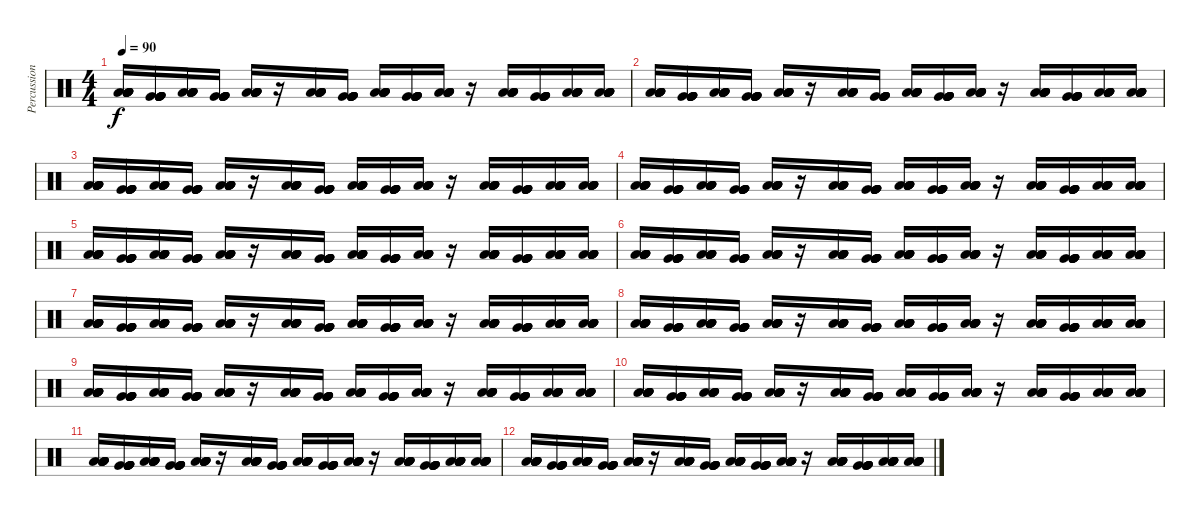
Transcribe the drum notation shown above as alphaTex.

\track ("Percussion 3" "Percussion") {instrument percussion}
\staff {score}
\articulation defaults
\ts (4 4)
\tempo 90
\clef neutral
\ks c
("Low Floor Tom (hit)" "Low Floor Tom (hit)" "Low Floor Tom (hit)" "Low Floor Tom (hit)" "Low Floor Tom (hit)" "Low Floor Tom (hit)").16{dy f} ("Very Low Tom (hit)" "Very Low Tom (hit)" "Very Low Tom (hit)" "Very Low Tom (hit)" "Very Low Tom (hit)" "Very Low Tom (hit)").16 ("Low Floor Tom (hit)" "Low Floor Tom (hit)" "Low Floor Tom (hit)" "Low Floor Tom (hit)" "Low Floor Tom (hit)" "Low Floor Tom (hit)").16 ("Very Low Tom (hit)" "Very Low Tom (hit)" "Very Low Tom (hit)" "Very Low Tom (hit)" "Very Low Tom (hit)" "Very Low Tom (hit)").16 ("Low Floor Tom (hit)" "Low Floor Tom (hit)" "Low Floor Tom (hit)" "Low Floor Tom (hit)" "Low Floor Tom (hit)" "Low Floor Tom (hit)").16 r.16 ("Low Floor Tom (hit)" "Low Floor Tom (hit)" "Low Floor Tom (hit)" "Low Floor Tom (hit)" "Low Floor Tom (hit)" "Low Floor Tom (hit)").16 ("Very Low Tom (hit)" "Very Low Tom (hit)" "Very Low Tom (hit)" "Very Low Tom (hit)" "Very Low Tom (hit)" "Very Low Tom (hit)").16 ("Low Floor Tom (hit)" "Low Floor Tom (hit)" "Low Floor Tom (hit)" "Low Floor Tom (hit)" "Low Floor Tom (hit)" "Low Floor Tom (hit)").16 ("Very Low Tom (hit)" "Very Low Tom (hit)" "Very Low Tom (hit)" "Very Low Tom (hit)" "Very Low Tom (hit)" "Very Low Tom (hit)").16 ("Low Floor Tom (hit)" "Low Floor Tom (hit)" "Low Floor Tom (hit)" "Low Floor Tom (hit)" "Low Floor Tom (hit)" "Low Floor Tom (hit)").16 r.16 ("Low Floor Tom (hit)" "Low Floor Tom (hit)" "Low Floor Tom (hit)" "Low Floor Tom (hit)" "Low Floor Tom (hit)" "Low Floor Tom (hit)").16 ("Very Low Tom (hit)" "Very Low Tom (hit)" "Very Low Tom (hit)" "Very Low Tom (hit)" "Very Low Tom (hit)" "Very Low Tom (hit)").16 ("Low Floor Tom (hit)" "Low Floor Tom (hit)" "Low Floor Tom (hit)" "Low Floor Tom (hit)" "Low Floor Tom (hit)" "Low Floor Tom (hit)").16 ("Low Floor Tom (hit)" "Low Floor Tom (hit)" "Low Floor Tom (hit)" "Low Floor Tom (hit)" "Low Floor Tom (hit)" "Low Floor Tom (hit)").16 |
("Low Floor Tom (hit)" "Low Floor Tom (hit)" "Low Floor Tom (hit)" "Low Floor Tom (hit)" "Low Floor Tom (hit)" "Low Floor Tom (hit)").16 ("Very Low Tom (hit)" "Very Low Tom (hit)" "Very Low Tom (hit)" "Very Low Tom (hit)" "Very Low Tom (hit)" "Very Low Tom (hit)").16 ("Low Floor Tom (hit)" "Low Floor Tom (hit)" "Low Floor Tom (hit)" "Low Floor Tom (hit)" "Low Floor Tom (hit)" "Low Floor Tom (hit)").16 ("Very Low Tom (hit)" "Very Low Tom (hit)" "Very Low Tom (hit)" "Very Low Tom (hit)" "Very Low Tom (hit)" "Very Low Tom (hit)").16 ("Low Floor Tom (hit)" "Low Floor Tom (hit)" "Low Floor Tom (hit)" "Low Floor Tom (hit)" "Low Floor Tom (hit)" "Low Floor Tom (hit)").16 r.16 ("Low Floor Tom (hit)" "Low Floor Tom (hit)" "Low Floor Tom (hit)" "Low Floor Tom (hit)" "Low Floor Tom (hit)" "Low Floor Tom (hit)").16 ("Very Low Tom (hit)" "Very Low Tom (hit)" "Very Low Tom (hit)" "Very Low Tom (hit)" "Very Low Tom (hit)" "Very Low Tom (hit)").16 ("Low Floor Tom (hit)" "Low Floor Tom (hit)" "Low Floor Tom (hit)" "Low Floor Tom (hit)" "Low Floor Tom (hit)" "Low Floor Tom (hit)").16 ("Very Low Tom (hit)" "Very Low Tom (hit)" "Very Low Tom (hit)" "Very Low Tom (hit)" "Very Low Tom (hit)" "Very Low Tom (hit)").16 ("Low Floor Tom (hit)" "Low Floor Tom (hit)" "Low Floor Tom (hit)" "Low Floor Tom (hit)" "Low Floor Tom (hit)" "Low Floor Tom (hit)").16 r.16 ("Low Floor Tom (hit)" "Low Floor Tom (hit)" "Low Floor Tom (hit)" "Low Floor Tom (hit)" "Low Floor Tom (hit)" "Low Floor Tom (hit)").16 ("Very Low Tom (hit)" "Very Low Tom (hit)" "Very Low Tom (hit)" "Very Low Tom (hit)" "Very Low Tom (hit)" "Very Low Tom (hit)").16 ("Low Floor Tom (hit)" "Low Floor Tom (hit)" "Low Floor Tom (hit)" "Low Floor Tom (hit)" "Low Floor Tom (hit)" "Low Floor Tom (hit)").16 ("Low Floor Tom (hit)" "Low Floor Tom (hit)" "Low Floor Tom (hit)" "Low Floor Tom (hit)" "Low Floor Tom (hit)" "Low Floor Tom (hit)").16 |
("Low Floor Tom (hit)" "Low Floor Tom (hit)" "Low Floor Tom (hit)" "Low Floor Tom (hit)" "Low Floor Tom (hit)" "Low Floor Tom (hit)").16 ("Very Low Tom (hit)" "Very Low Tom (hit)" "Very Low Tom (hit)" "Very Low Tom (hit)" "Very Low Tom (hit)" "Very Low Tom (hit)").16 ("Low Floor Tom (hit)" "Low Floor Tom (hit)" "Low Floor Tom (hit)" "Low Floor Tom (hit)" "Low Floor Tom (hit)" "Low Floor Tom (hit)").16 ("Very Low Tom (hit)" "Very Low Tom (hit)" "Very Low Tom (hit)" "Very Low Tom (hit)" "Very Low Tom (hit)" "Very Low Tom (hit)").16 ("Low Floor Tom (hit)" "Low Floor Tom (hit)" "Low Floor Tom (hit)" "Low Floor Tom (hit)" "Low Floor Tom (hit)" "Low Floor Tom (hit)").16 r.16 ("Low Floor Tom (hit)" "Low Floor Tom (hit)" "Low Floor Tom (hit)" "Low Floor Tom (hit)" "Low Floor Tom (hit)" "Low Floor Tom (hit)").16 ("Very Low Tom (hit)" "Very Low Tom (hit)" "Very Low Tom (hit)" "Very Low Tom (hit)" "Very Low Tom (hit)" "Very Low Tom (hit)").16 ("Low Floor Tom (hit)" "Low Floor Tom (hit)" "Low Floor Tom (hit)" "Low Floor Tom (hit)" "Low Floor Tom (hit)" "Low Floor Tom (hit)").16 ("Very Low Tom (hit)" "Very Low Tom (hit)" "Very Low Tom (hit)" "Very Low Tom (hit)" "Very Low Tom (hit)" "Very Low Tom (hit)").16 ("Low Floor Tom (hit)" "Low Floor Tom (hit)" "Low Floor Tom (hit)" "Low Floor Tom (hit)" "Low Floor Tom (hit)" "Low Floor Tom (hit)").16 r.16 ("Low Floor Tom (hit)" "Low Floor Tom (hit)" "Low Floor Tom (hit)" "Low Floor Tom (hit)" "Low Floor Tom (hit)" "Low Floor Tom (hit)").16 ("Very Low Tom (hit)" "Very Low Tom (hit)" "Very Low Tom (hit)" "Very Low Tom (hit)" "Very Low Tom (hit)" "Very Low Tom (hit)").16 ("Low Floor Tom (hit)" "Low Floor Tom (hit)" "Low Floor Tom (hit)" "Low Floor Tom (hit)" "Low Floor Tom (hit)" "Low Floor Tom (hit)").16 ("Low Floor Tom (hit)" "Low Floor Tom (hit)" "Low Floor Tom (hit)" "Low Floor Tom (hit)" "Low Floor Tom (hit)" "Low Floor Tom (hit)").16 |
("Low Floor Tom (hit)" "Low Floor Tom (hit)" "Low Floor Tom (hit)" "Low Floor Tom (hit)" "Low Floor Tom (hit)" "Low Floor Tom (hit)").16 ("Very Low Tom (hit)" "Very Low Tom (hit)" "Very Low Tom (hit)" "Very Low Tom (hit)" "Very Low Tom (hit)" "Very Low Tom (hit)").16 ("Low Floor Tom (hit)" "Low Floor Tom (hit)" "Low Floor Tom (hit)" "Low Floor Tom (hit)" "Low Floor Tom (hit)" "Low Floor Tom (hit)").16 ("Very Low Tom (hit)" "Very Low Tom (hit)" "Very Low Tom (hit)" "Very Low Tom (hit)" "Very Low Tom (hit)" "Very Low Tom (hit)").16 ("Low Floor Tom (hit)" "Low Floor Tom (hit)" "Low Floor Tom (hit)" "Low Floor Tom (hit)" "Low Floor Tom (hit)" "Low Floor Tom (hit)").16 r.16 ("Low Floor Tom (hit)" "Low Floor Tom (hit)" "Low Floor Tom (hit)" "Low Floor Tom (hit)" "Low Floor Tom (hit)" "Low Floor Tom (hit)").16 ("Very Low Tom (hit)" "Very Low Tom (hit)" "Very Low Tom (hit)" "Very Low Tom (hit)" "Very Low Tom (hit)" "Very Low Tom (hit)").16 ("Low Floor Tom (hit)" "Low Floor Tom (hit)" "Low Floor Tom (hit)" "Low Floor Tom (hit)" "Low Floor Tom (hit)" "Low Floor Tom (hit)").16 ("Very Low Tom (hit)" "Very Low Tom (hit)" "Very Low Tom (hit)" "Very Low Tom (hit)" "Very Low Tom (hit)" "Very Low Tom (hit)").16 ("Low Floor Tom (hit)" "Low Floor Tom (hit)" "Low Floor Tom (hit)" "Low Floor Tom (hit)" "Low Floor Tom (hit)" "Low Floor Tom (hit)").16 r.16 ("Low Floor Tom (hit)" "Low Floor Tom (hit)" "Low Floor Tom (hit)" "Low Floor Tom (hit)" "Low Floor Tom (hit)" "Low Floor Tom (hit)").16 ("Very Low Tom (hit)" "Very Low Tom (hit)" "Very Low Tom (hit)" "Very Low Tom (hit)" "Very Low Tom (hit)" "Very Low Tom (hit)").16 ("Low Floor Tom (hit)" "Low Floor Tom (hit)" "Low Floor Tom (hit)" "Low Floor Tom (hit)" "Low Floor Tom (hit)" "Low Floor Tom (hit)").16 ("Low Floor Tom (hit)" "Low Floor Tom (hit)" "Low Floor Tom (hit)" "Low Floor Tom (hit)" "Low Floor Tom (hit)" "Low Floor Tom (hit)").16 |
("Low Floor Tom (hit)" "Low Floor Tom (hit)" "Low Floor Tom (hit)" "Low Floor Tom (hit)" "Low Floor Tom (hit)" "Low Floor Tom (hit)").16 ("Very Low Tom (hit)" "Very Low Tom (hit)" "Very Low Tom (hit)" "Very Low Tom (hit)" "Very Low Tom (hit)" "Very Low Tom (hit)").16 ("Low Floor Tom (hit)" "Low Floor Tom (hit)" "Low Floor Tom (hit)" "Low Floor Tom (hit)" "Low Floor Tom (hit)" "Low Floor Tom (hit)").16 ("Very Low Tom (hit)" "Very Low Tom (hit)" "Very Low Tom (hit)" "Very Low Tom (hit)" "Very Low Tom (hit)" "Very Low Tom (hit)").16 ("Low Floor Tom (hit)" "Low Floor Tom (hit)" "Low Floor Tom (hit)" "Low Floor Tom (hit)" "Low Floor Tom (hit)" "Low Floor Tom (hit)").16 r.16 ("Low Floor Tom (hit)" "Low Floor Tom (hit)" "Low Floor Tom (hit)" "Low Floor Tom (hit)" "Low Floor Tom (hit)" "Low Floor Tom (hit)").16 ("Very Low Tom (hit)" "Very Low Tom (hit)" "Very Low Tom (hit)" "Very Low Tom (hit)" "Very Low Tom (hit)" "Very Low Tom (hit)").16 ("Low Floor Tom (hit)" "Low Floor Tom (hit)" "Low Floor Tom (hit)" "Low Floor Tom (hit)" "Low Floor Tom (hit)" "Low Floor Tom (hit)").16 ("Very Low Tom (hit)" "Very Low Tom (hit)" "Very Low Tom (hit)" "Very Low Tom (hit)" "Very Low Tom (hit)" "Very Low Tom (hit)").16 ("Low Floor Tom (hit)" "Low Floor Tom (hit)" "Low Floor Tom (hit)" "Low Floor Tom (hit)" "Low Floor Tom (hit)" "Low Floor Tom (hit)").16 r.16 ("Low Floor Tom (hit)" "Low Floor Tom (hit)" "Low Floor Tom (hit)" "Low Floor Tom (hit)" "Low Floor Tom (hit)" "Low Floor Tom (hit)").16 ("Very Low Tom (hit)" "Very Low Tom (hit)" "Very Low Tom (hit)" "Very Low Tom (hit)" "Very Low Tom (hit)" "Very Low Tom (hit)").16 ("Low Floor Tom (hit)" "Low Floor Tom (hit)" "Low Floor Tom (hit)" "Low Floor Tom (hit)" "Low Floor Tom (hit)" "Low Floor Tom (hit)").16 ("Low Floor Tom (hit)" "Low Floor Tom (hit)" "Low Floor Tom (hit)" "Low Floor Tom (hit)" "Low Floor Tom (hit)" "Low Floor Tom (hit)").16 |
("Low Floor Tom (hit)" "Low Floor Tom (hit)" "Low Floor Tom (hit)" "Low Floor Tom (hit)" "Low Floor Tom (hit)" "Low Floor Tom (hit)").16 ("Very Low Tom (hit)" "Very Low Tom (hit)" "Very Low Tom (hit)" "Very Low Tom (hit)" "Very Low Tom (hit)" "Very Low Tom (hit)").16 ("Low Floor Tom (hit)" "Low Floor Tom (hit)" "Low Floor Tom (hit)" "Low Floor Tom (hit)" "Low Floor Tom (hit)" "Low Floor Tom (hit)").16 ("Very Low Tom (hit)" "Very Low Tom (hit)" "Very Low Tom (hit)" "Very Low Tom (hit)" "Very Low Tom (hit)" "Very Low Tom (hit)").16 ("Low Floor Tom (hit)" "Low Floor Tom (hit)" "Low Floor Tom (hit)" "Low Floor Tom (hit)" "Low Floor Tom (hit)" "Low Floor Tom (hit)").16 r.16 ("Low Floor Tom (hit)" "Low Floor Tom (hit)" "Low Floor Tom (hit)" "Low Floor Tom (hit)" "Low Floor Tom (hit)" "Low Floor Tom (hit)").16 ("Very Low Tom (hit)" "Very Low Tom (hit)" "Very Low Tom (hit)" "Very Low Tom (hit)" "Very Low Tom (hit)" "Very Low Tom (hit)").16 ("Low Floor Tom (hit)" "Low Floor Tom (hit)" "Low Floor Tom (hit)" "Low Floor Tom (hit)" "Low Floor Tom (hit)" "Low Floor Tom (hit)").16 ("Very Low Tom (hit)" "Very Low Tom (hit)" "Very Low Tom (hit)" "Very Low Tom (hit)" "Very Low Tom (hit)" "Very Low Tom (hit)").16 ("Low Floor Tom (hit)" "Low Floor Tom (hit)" "Low Floor Tom (hit)" "Low Floor Tom (hit)" "Low Floor Tom (hit)" "Low Floor Tom (hit)").16 r.16 ("Low Floor Tom (hit)" "Low Floor Tom (hit)" "Low Floor Tom (hit)" "Low Floor Tom (hit)" "Low Floor Tom (hit)" "Low Floor Tom (hit)").16 ("Very Low Tom (hit)" "Very Low Tom (hit)" "Very Low Tom (hit)" "Very Low Tom (hit)" "Very Low Tom (hit)" "Very Low Tom (hit)").16 ("Low Floor Tom (hit)" "Low Floor Tom (hit)" "Low Floor Tom (hit)" "Low Floor Tom (hit)" "Low Floor Tom (hit)" "Low Floor Tom (hit)").16 ("Low Floor Tom (hit)" "Low Floor Tom (hit)" "Low Floor Tom (hit)" "Low Floor Tom (hit)" "Low Floor Tom (hit)" "Low Floor Tom (hit)").16 |
("Low Floor Tom (hit)" "Low Floor Tom (hit)" "Low Floor Tom (hit)" "Low Floor Tom (hit)" "Low Floor Tom (hit)" "Low Floor Tom (hit)").16 ("Very Low Tom (hit)" "Very Low Tom (hit)" "Very Low Tom (hit)" "Very Low Tom (hit)" "Very Low Tom (hit)" "Very Low Tom (hit)").16 ("Low Floor Tom (hit)" "Low Floor Tom (hit)" "Low Floor Tom (hit)" "Low Floor Tom (hit)" "Low Floor Tom (hit)" "Low Floor Tom (hit)").16 ("Very Low Tom (hit)" "Very Low Tom (hit)" "Very Low Tom (hit)" "Very Low Tom (hit)" "Very Low Tom (hit)" "Very Low Tom (hit)").16 ("Low Floor Tom (hit)" "Low Floor Tom (hit)" "Low Floor Tom (hit)" "Low Floor Tom (hit)" "Low Floor Tom (hit)" "Low Floor Tom (hit)").16 r.16 ("Low Floor Tom (hit)" "Low Floor Tom (hit)" "Low Floor Tom (hit)" "Low Floor Tom (hit)" "Low Floor Tom (hit)" "Low Floor Tom (hit)").16 ("Very Low Tom (hit)" "Very Low Tom (hit)" "Very Low Tom (hit)" "Very Low Tom (hit)" "Very Low Tom (hit)" "Very Low Tom (hit)").16 ("Low Floor Tom (hit)" "Low Floor Tom (hit)" "Low Floor Tom (hit)" "Low Floor Tom (hit)" "Low Floor Tom (hit)" "Low Floor Tom (hit)").16 ("Very Low Tom (hit)" "Very Low Tom (hit)" "Very Low Tom (hit)" "Very Low Tom (hit)" "Very Low Tom (hit)" "Very Low Tom (hit)").16 ("Low Floor Tom (hit)" "Low Floor Tom (hit)" "Low Floor Tom (hit)" "Low Floor Tom (hit)" "Low Floor Tom (hit)" "Low Floor Tom (hit)").16 r.16 ("Low Floor Tom (hit)" "Low Floor Tom (hit)" "Low Floor Tom (hit)" "Low Floor Tom (hit)" "Low Floor Tom (hit)" "Low Floor Tom (hit)").16 ("Very Low Tom (hit)" "Very Low Tom (hit)" "Very Low Tom (hit)" "Very Low Tom (hit)" "Very Low Tom (hit)" "Very Low Tom (hit)").16 ("Low Floor Tom (hit)" "Low Floor Tom (hit)" "Low Floor Tom (hit)" "Low Floor Tom (hit)" "Low Floor Tom (hit)" "Low Floor Tom (hit)").16 ("Low Floor Tom (hit)" "Low Floor Tom (hit)" "Low Floor Tom (hit)" "Low Floor Tom (hit)" "Low Floor Tom (hit)" "Low Floor Tom (hit)").16 |
("Low Floor Tom (hit)" "Low Floor Tom (hit)" "Low Floor Tom (hit)" "Low Floor Tom (hit)" "Low Floor Tom (hit)" "Low Floor Tom (hit)").16 ("Very Low Tom (hit)" "Very Low Tom (hit)" "Very Low Tom (hit)" "Very Low Tom (hit)" "Very Low Tom (hit)" "Very Low Tom (hit)").16 ("Low Floor Tom (hit)" "Low Floor Tom (hit)" "Low Floor Tom (hit)" "Low Floor Tom (hit)" "Low Floor Tom (hit)" "Low Floor Tom (hit)").16 ("Very Low Tom (hit)" "Very Low Tom (hit)" "Very Low Tom (hit)" "Very Low Tom (hit)" "Very Low Tom (hit)" "Very Low Tom (hit)").16 ("Low Floor Tom (hit)" "Low Floor Tom (hit)" "Low Floor Tom (hit)" "Low Floor Tom (hit)" "Low Floor Tom (hit)" "Low Floor Tom (hit)").16 r.16 ("Low Floor Tom (hit)" "Low Floor Tom (hit)" "Low Floor Tom (hit)" "Low Floor Tom (hit)" "Low Floor Tom (hit)" "Low Floor Tom (hit)").16 ("Very Low Tom (hit)" "Very Low Tom (hit)" "Very Low Tom (hit)" "Very Low Tom (hit)" "Very Low Tom (hit)" "Very Low Tom (hit)").16 ("Low Floor Tom (hit)" "Low Floor Tom (hit)" "Low Floor Tom (hit)" "Low Floor Tom (hit)" "Low Floor Tom (hit)" "Low Floor Tom (hit)").16 ("Very Low Tom (hit)" "Very Low Tom (hit)" "Very Low Tom (hit)" "Very Low Tom (hit)" "Very Low Tom (hit)" "Very Low Tom (hit)").16 ("Low Floor Tom (hit)" "Low Floor Tom (hit)" "Low Floor Tom (hit)" "Low Floor Tom (hit)" "Low Floor Tom (hit)" "Low Floor Tom (hit)").16 r.16 ("Low Floor Tom (hit)" "Low Floor Tom (hit)" "Low Floor Tom (hit)" "Low Floor Tom (hit)" "Low Floor Tom (hit)" "Low Floor Tom (hit)").16 ("Very Low Tom (hit)" "Very Low Tom (hit)" "Very Low Tom (hit)" "Very Low Tom (hit)" "Very Low Tom (hit)" "Very Low Tom (hit)").16 ("Low Floor Tom (hit)" "Low Floor Tom (hit)" "Low Floor Tom (hit)" "Low Floor Tom (hit)" "Low Floor Tom (hit)" "Low Floor Tom (hit)").16 ("Low Floor Tom (hit)" "Low Floor Tom (hit)" "Low Floor Tom (hit)" "Low Floor Tom (hit)" "Low Floor Tom (hit)" "Low Floor Tom (hit)").16 |
("Low Floor Tom (hit)" "Low Floor Tom (hit)" "Low Floor Tom (hit)" "Low Floor Tom (hit)" "Low Floor Tom (hit)" "Low Floor Tom (hit)").16 ("Very Low Tom (hit)" "Very Low Tom (hit)" "Very Low Tom (hit)" "Very Low Tom (hit)" "Very Low Tom (hit)" "Very Low Tom (hit)").16 ("Low Floor Tom (hit)" "Low Floor Tom (hit)" "Low Floor Tom (hit)" "Low Floor Tom (hit)" "Low Floor Tom (hit)" "Low Floor Tom (hit)").16 ("Very Low Tom (hit)" "Very Low Tom (hit)" "Very Low Tom (hit)" "Very Low Tom (hit)" "Very Low Tom (hit)" "Very Low Tom (hit)").16 ("Low Floor Tom (hit)" "Low Floor Tom (hit)" "Low Floor Tom (hit)" "Low Floor Tom (hit)" "Low Floor Tom (hit)" "Low Floor Tom (hit)").16 r.16 ("Low Floor Tom (hit)" "Low Floor Tom (hit)" "Low Floor Tom (hit)" "Low Floor Tom (hit)" "Low Floor Tom (hit)" "Low Floor Tom (hit)").16 ("Very Low Tom (hit)" "Very Low Tom (hit)" "Very Low Tom (hit)" "Very Low Tom (hit)" "Very Low Tom (hit)" "Very Low Tom (hit)").16 ("Low Floor Tom (hit)" "Low Floor Tom (hit)" "Low Floor Tom (hit)" "Low Floor Tom (hit)" "Low Floor Tom (hit)" "Low Floor Tom (hit)").16 ("Very Low Tom (hit)" "Very Low Tom (hit)" "Very Low Tom (hit)" "Very Low Tom (hit)" "Very Low Tom (hit)" "Very Low Tom (hit)").16 ("Low Floor Tom (hit)" "Low Floor Tom (hit)" "Low Floor Tom (hit)" "Low Floor Tom (hit)" "Low Floor Tom (hit)" "Low Floor Tom (hit)").16 r.16 ("Low Floor Tom (hit)" "Low Floor Tom (hit)" "Low Floor Tom (hit)" "Low Floor Tom (hit)" "Low Floor Tom (hit)" "Low Floor Tom (hit)").16 ("Very Low Tom (hit)" "Very Low Tom (hit)" "Very Low Tom (hit)" "Very Low Tom (hit)" "Very Low Tom (hit)" "Very Low Tom (hit)").16 ("Low Floor Tom (hit)" "Low Floor Tom (hit)" "Low Floor Tom (hit)" "Low Floor Tom (hit)" "Low Floor Tom (hit)" "Low Floor Tom (hit)").16 ("Low Floor Tom (hit)" "Low Floor Tom (hit)" "Low Floor Tom (hit)" "Low Floor Tom (hit)" "Low Floor Tom (hit)" "Low Floor Tom (hit)").16 |
("Low Floor Tom (hit)" "Low Floor Tom (hit)" "Low Floor Tom (hit)" "Low Floor Tom (hit)" "Low Floor Tom (hit)" "Low Floor Tom (hit)").16 ("Very Low Tom (hit)" "Very Low Tom (hit)" "Very Low Tom (hit)" "Very Low Tom (hit)" "Very Low Tom (hit)" "Very Low Tom (hit)").16 ("Low Floor Tom (hit)" "Low Floor Tom (hit)" "Low Floor Tom (hit)" "Low Floor Tom (hit)" "Low Floor Tom (hit)" "Low Floor Tom (hit)").16 ("Very Low Tom (hit)" "Very Low Tom (hit)" "Very Low Tom (hit)" "Very Low Tom (hit)" "Very Low Tom (hit)" "Very Low Tom (hit)").16 ("Low Floor Tom (hit)" "Low Floor Tom (hit)" "Low Floor Tom (hit)" "Low Floor Tom (hit)" "Low Floor Tom (hit)" "Low Floor Tom (hit)").16 r.16 ("Low Floor Tom (hit)" "Low Floor Tom (hit)" "Low Floor Tom (hit)" "Low Floor Tom (hit)" "Low Floor Tom (hit)" "Low Floor Tom (hit)").16 ("Very Low Tom (hit)" "Very Low Tom (hit)" "Very Low Tom (hit)" "Very Low Tom (hit)" "Very Low Tom (hit)" "Very Low Tom (hit)").16 ("Low Floor Tom (hit)" "Low Floor Tom (hit)" "Low Floor Tom (hit)" "Low Floor Tom (hit)" "Low Floor Tom (hit)" "Low Floor Tom (hit)").16 ("Very Low Tom (hit)" "Very Low Tom (hit)" "Very Low Tom (hit)" "Very Low Tom (hit)" "Very Low Tom (hit)" "Very Low Tom (hit)").16 ("Low Floor Tom (hit)" "Low Floor Tom (hit)" "Low Floor Tom (hit)" "Low Floor Tom (hit)" "Low Floor Tom (hit)" "Low Floor Tom (hit)").16 r.16 ("Low Floor Tom (hit)" "Low Floor Tom (hit)" "Low Floor Tom (hit)" "Low Floor Tom (hit)" "Low Floor Tom (hit)" "Low Floor Tom (hit)").16 ("Very Low Tom (hit)" "Very Low Tom (hit)" "Very Low Tom (hit)" "Very Low Tom (hit)" "Very Low Tom (hit)" "Very Low Tom (hit)").16 ("Low Floor Tom (hit)" "Low Floor Tom (hit)" "Low Floor Tom (hit)" "Low Floor Tom (hit)" "Low Floor Tom (hit)" "Low Floor Tom (hit)").16 ("Low Floor Tom (hit)" "Low Floor Tom (hit)" "Low Floor Tom (hit)" "Low Floor Tom (hit)" "Low Floor Tom (hit)" "Low Floor Tom (hit)").16 |
("Low Floor Tom (hit)" "Low Floor Tom (hit)" "Low Floor Tom (hit)" "Low Floor Tom (hit)" "Low Floor Tom (hit)" "Low Floor Tom (hit)").16 ("Very Low Tom (hit)" "Very Low Tom (hit)" "Very Low Tom (hit)" "Very Low Tom (hit)" "Very Low Tom (hit)" "Very Low Tom (hit)").16 ("Low Floor Tom (hit)" "Low Floor Tom (hit)" "Low Floor Tom (hit)" "Low Floor Tom (hit)" "Low Floor Tom (hit)" "Low Floor Tom (hit)").16 ("Very Low Tom (hit)" "Very Low Tom (hit)" "Very Low Tom (hit)" "Very Low Tom (hit)" "Very Low Tom (hit)" "Very Low Tom (hit)").16 ("Low Floor Tom (hit)" "Low Floor Tom (hit)" "Low Floor Tom (hit)" "Low Floor Tom (hit)" "Low Floor Tom (hit)" "Low Floor Tom (hit)").16 r.16 ("Low Floor Tom (hit)" "Low Floor Tom (hit)" "Low Floor Tom (hit)" "Low Floor Tom (hit)" "Low Floor Tom (hit)" "Low Floor Tom (hit)").16 ("Very Low Tom (hit)" "Very Low Tom (hit)" "Very Low Tom (hit)" "Very Low Tom (hit)" "Very Low Tom (hit)" "Very Low Tom (hit)").16 ("Low Floor Tom (hit)" "Low Floor Tom (hit)" "Low Floor Tom (hit)" "Low Floor Tom (hit)" "Low Floor Tom (hit)" "Low Floor Tom (hit)").16 ("Very Low Tom (hit)" "Very Low Tom (hit)" "Very Low Tom (hit)" "Very Low Tom (hit)" "Very Low Tom (hit)" "Very Low Tom (hit)").16 ("Low Floor Tom (hit)" "Low Floor Tom (hit)" "Low Floor Tom (hit)" "Low Floor Tom (hit)" "Low Floor Tom (hit)" "Low Floor Tom (hit)").16 r.16 ("Low Floor Tom (hit)" "Low Floor Tom (hit)" "Low Floor Tom (hit)" "Low Floor Tom (hit)" "Low Floor Tom (hit)" "Low Floor Tom (hit)").16 ("Very Low Tom (hit)" "Very Low Tom (hit)" "Very Low Tom (hit)" "Very Low Tom (hit)" "Very Low Tom (hit)" "Very Low Tom (hit)").16 ("Low Floor Tom (hit)" "Low Floor Tom (hit)" "Low Floor Tom (hit)" "Low Floor Tom (hit)" "Low Floor Tom (hit)" "Low Floor Tom (hit)").16 ("Low Floor Tom (hit)" "Low Floor Tom (hit)" "Low Floor Tom (hit)" "Low Floor Tom (hit)" "Low Floor Tom (hit)" "Low Floor Tom (hit)").16 |
("Low Floor Tom (hit)" "Low Floor Tom (hit)" "Low Floor Tom (hit)" "Low Floor Tom (hit)" "Low Floor Tom (hit)" "Low Floor Tom (hit)").16 ("Very Low Tom (hit)" "Very Low Tom (hit)" "Very Low Tom (hit)" "Very Low Tom (hit)" "Very Low Tom (hit)" "Very Low Tom (hit)").16 ("Low Floor Tom (hit)" "Low Floor Tom (hit)" "Low Floor Tom (hit)" "Low Floor Tom (hit)" "Low Floor Tom (hit)" "Low Floor Tom (hit)").16 ("Very Low Tom (hit)" "Very Low Tom (hit)" "Very Low Tom (hit)" "Very Low Tom (hit)" "Very Low Tom (hit)" "Very Low Tom (hit)").16 ("Low Floor Tom (hit)" "Low Floor Tom (hit)" "Low Floor Tom (hit)" "Low Floor Tom (hit)" "Low Floor Tom (hit)" "Low Floor Tom (hit)").16 r.16 ("Low Floor Tom (hit)" "Low Floor Tom (hit)" "Low Floor Tom (hit)" "Low Floor Tom (hit)" "Low Floor Tom (hit)" "Low Floor Tom (hit)").16 ("Very Low Tom (hit)" "Very Low Tom (hit)" "Very Low Tom (hit)" "Very Low Tom (hit)" "Very Low Tom (hit)" "Very Low Tom (hit)").16 ("Low Floor Tom (hit)" "Low Floor Tom (hit)" "Low Floor Tom (hit)" "Low Floor Tom (hit)" "Low Floor Tom (hit)" "Low Floor Tom (hit)").16 ("Very Low Tom (hit)" "Very Low Tom (hit)" "Very Low Tom (hit)" "Very Low Tom (hit)" "Very Low Tom (hit)" "Very Low Tom (hit)").16 ("Low Floor Tom (hit)" "Low Floor Tom (hit)" "Low Floor Tom (hit)" "Low Floor Tom (hit)" "Low Floor Tom (hit)" "Low Floor Tom (hit)").16 r.16 ("Low Floor Tom (hit)" "Low Floor Tom (hit)" "Low Floor Tom (hit)" "Low Floor Tom (hit)" "Low Floor Tom (hit)" "Low Floor Tom (hit)").16 ("Very Low Tom (hit)" "Very Low Tom (hit)" "Very Low Tom (hit)" "Very Low Tom (hit)" "Very Low Tom (hit)" "Very Low Tom (hit)").16 ("Low Floor Tom (hit)" "Low Floor Tom (hit)" "Low Floor Tom (hit)" "Low Floor Tom (hit)" "Low Floor Tom (hit)" "Low Floor Tom (hit)").16 ("Low Floor Tom (hit)" "Low Floor Tom (hit)" "Low Floor Tom (hit)" "Low Floor Tom (hit)" "Low Floor Tom (hit)" "Low Floor Tom (hit)").16
